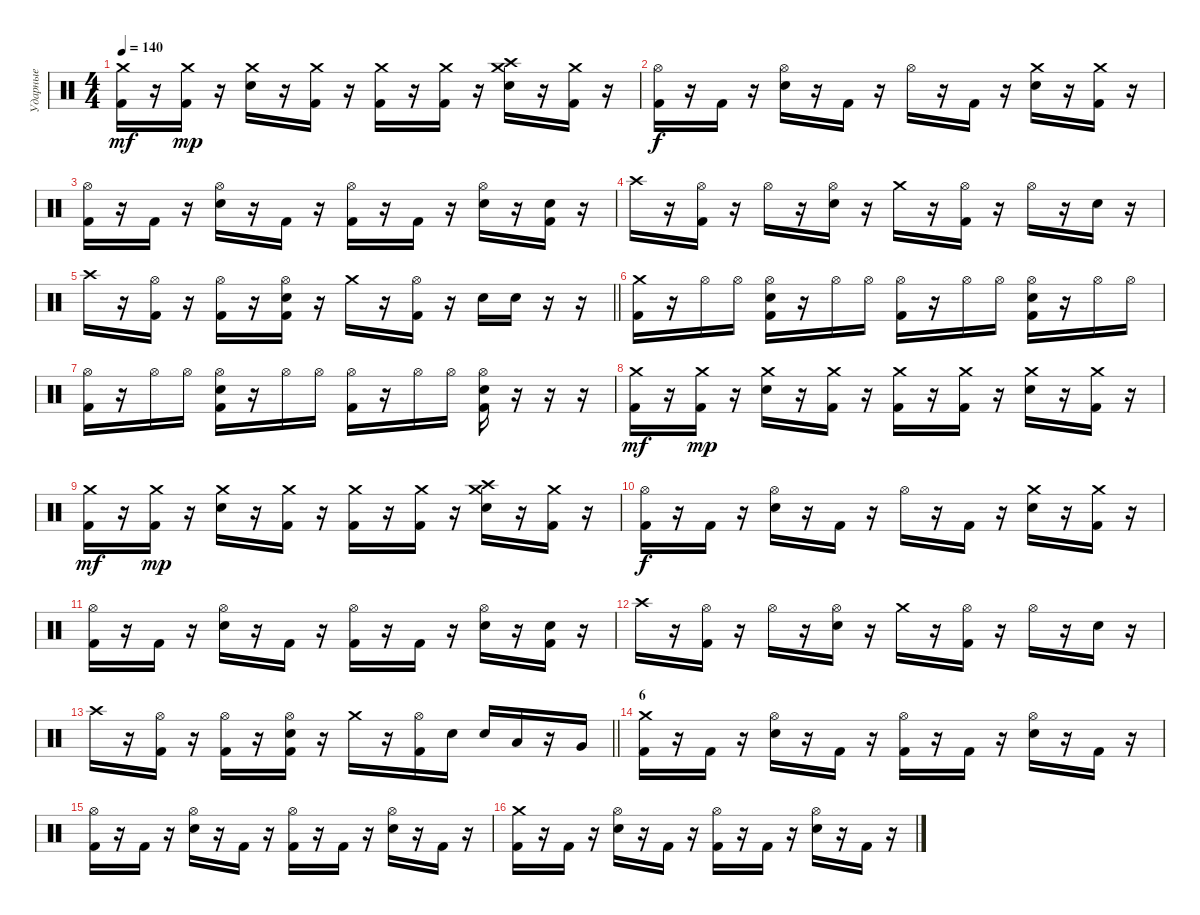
\track ("Ударные" "Ударные") {instrument percussion}
\staff {score}
\articulation defaults
\ts (4 4)
\tempo 140
\clef neutral
\ks c
("Crash medium (hit)" "Kick (hit) 2").16{dy mf} r.16 ("Crash medium (hit)" "Kick (hit) 2").16{dy mp} r.16 ("Crash medium (hit)" "Electric Snare (hit)").16 r.16 ("Crash medium (hit)" "Kick (hit) 2").16 r.16 ("Crash medium (hit)" "Kick (hit) 2").16 r.16 ("Crash medium (hit)" "Kick (hit) 2").16 r.16 ("Crash medium (hit)" "Crash high (hit)" "Electric Snare (hit)").16 r.16 ("Crash medium (hit)" "Kick (hit) 2").16 r.16 |
("Hi-Hat (open)" "Kick (hit) 2").16{dy f} r.16 "Kick (hit) 2".16 r.16 ("Hi-Hat (open)" "Electric Snare (hit)").16 r.16 "Kick (hit) 2".16 r.16 "Hi-Hat (open)".16 r.16 "Kick (hit) 2".16 r.16 ("Crash medium (hit)" "Electric Snare (hit)").16 r.16 ("Crash medium (hit)" "Kick (hit) 2").16 r.16 |
("Hi-Hat (open)" "Kick (hit) 2").16 r.16 "Kick (hit) 2".16 r.16 ("Hi-Hat (open)" "Electric Snare (hit)").16 r.16 "Kick (hit) 2".16 r.16 ("Hi-Hat (open)" "Kick (hit) 2").16 r.16 "Kick (hit) 2".16 r.16 ("Hi-Hat (open)" "Electric Snare (hit)").16 r.16 ("Electric Snare (hit)" "Kick (hit) 2").16 r.16 |
"Crash high (hit)".16 r.16 ("Hi-Hat (open)" "Kick (hit) 2").16 r.16 "Hi-Hat (open)".16 r.16 ("Hi-Hat (open)" "Electric Snare (hit)").16 r.16 "Crash medium (hit)".16 r.16 ("Hi-Hat (open)" "Kick (hit) 2").16 r.16 "Hi-Hat (open)".16 r.16 "Electric Snare (hit)".16 r.16 |
\barLineRight lightlight "Crash high (hit)".16
r.16 ("Hi-Hat (open)" "Kick (hit) 2").16 r.16 ("Hi-Hat (open)" "Kick (hit) 2").16 r.16 ("Hi-Hat (open)" "Electric Snare (hit)" "Kick (hit) 2").16 r.16 "Crash medium (hit)".16 r.16 ("Hi-Hat (open)" "Kick (hit) 2").16 r.16 "Electric Snare (hit)".16 "Electric Snare (hit)".16 r.16 r.16 |
("Crash medium (hit)" "Kick (hit) 2").16 r.16 "Hi-Hat (open)".16 "Hi-Hat (open)".16 ("Hi-Hat (open)" "Electric Snare (hit)" "Kick (hit) 2").16 r.16 "Hi-Hat (open)".16 "Hi-Hat (open)".16 ("Hi-Hat (open)" "Kick (hit) 2").16 r.16 "Hi-Hat (open)".16 "Hi-Hat (open)".16 ("Hi-Hat (open)" "Electric Snare (hit)" "Kick (hit) 2").16 r.16 "Hi-Hat (open)".16 "Hi-Hat (open)".16 |
("Hi-Hat (open)" "Kick (hit) 2").16 r.16 "Hi-Hat (open)".16 "Hi-Hat (open)".16 ("Hi-Hat (open)" "Electric Snare (hit)" "Kick (hit) 2").16 r.16 "Hi-Hat (open)".16 "Hi-Hat (open)".16 ("Hi-Hat (open)" "Kick (hit) 2").16 r.16 "Hi-Hat (open)".16 "Hi-Hat (open)".16 ("Hi-Hat (open)" "Electric Snare (hit)" "Kick (hit) 2").16 r.16 r.16 r.16 |
("Crash medium (hit)" "Kick (hit) 2").16{dy mf} r.16 ("Crash medium (hit)" "Kick (hit) 2").16{dy mp} r.16 ("Crash medium (hit)" "Electric Snare (hit)").16 r.16 ("Crash medium (hit)" "Kick (hit) 2").16 r.16 ("Crash medium (hit)" "Kick (hit) 2").16 r.16 ("Crash medium (hit)" "Kick (hit) 2").16 r.16 ("Crash medium (hit)" "Electric Snare (hit)").16 r.16 ("Crash medium (hit)" "Kick (hit) 2").16 r.16 |
("Crash medium (hit)" "Kick (hit) 2").16{dy mf} r.16 ("Crash medium (hit)" "Kick (hit) 2").16{dy mp} r.16 ("Crash medium (hit)" "Electric Snare (hit)").16 r.16 ("Crash medium (hit)" "Kick (hit) 2").16 r.16 ("Crash medium (hit)" "Kick (hit) 2").16 r.16 ("Crash medium (hit)" "Kick (hit) 2").16 r.16 ("Crash medium (hit)" "Crash high (hit)" "Electric Snare (hit)").16 r.16 ("Crash medium (hit)" "Kick (hit) 2").16 r.16 |
("Hi-Hat (open)" "Kick (hit) 2").16{dy f} r.16 "Kick (hit) 2".16 r.16 ("Hi-Hat (open)" "Electric Snare (hit)").16 r.16 "Kick (hit) 2".16 r.16 "Hi-Hat (open)".16 r.16 "Kick (hit) 2".16 r.16 ("Crash medium (hit)" "Electric Snare (hit)").16 r.16 ("Crash medium (hit)" "Kick (hit) 2").16 r.16 |
("Hi-Hat (open)" "Kick (hit) 2").16 r.16 "Kick (hit) 2".16 r.16 ("Hi-Hat (open)" "Electric Snare (hit)").16 r.16 "Kick (hit) 2".16 r.16 ("Hi-Hat (open)" "Kick (hit) 2").16 r.16 "Kick (hit) 2".16 r.16 ("Hi-Hat (open)" "Electric Snare (hit)").16 r.16 ("Electric Snare (hit)" "Kick (hit) 2").16 r.16 |
"Crash high (hit)".16 r.16 ("Hi-Hat (open)" "Kick (hit) 2").16 r.16 "Hi-Hat (open)".16 r.16 ("Hi-Hat (open)" "Electric Snare (hit)").16 r.16 "Crash medium (hit)".16 r.16 ("Hi-Hat (open)" "Kick (hit) 2").16 r.16 "Hi-Hat (open)".16 r.16 "Electric Snare (hit)".16 r.16 |
\barLineRight lightlight "Crash high (hit)".16
r.16 ("Hi-Hat (open)" "Kick (hit) 2").16 r.16 ("Hi-Hat (open)" "Kick (hit) 2").16 r.16 ("Hi-Hat (open)" "Electric Snare (hit)" "Kick (hit) 2").16 r.16 "Crash medium (hit)".16 r.16 ("Hi-Hat (open)" "Kick (hit) 2").16 "Electric Snare (hit)".16 "Electric Snare (hit)".16 "Low Tom (hit)".16 r.16 "Very Low Tom (hit)".16 |
\section ("" "6")
("Crash medium (hit)" "Kick (hit) 2").16 r.16 "Kick (hit) 2".16 r.16 ("Hi-Hat (open)" "Electric Snare (hit)").16 r.16 "Kick (hit) 2".16 r.16 ("Hi-Hat (open)" "Kick (hit) 2").16 r.16 "Kick (hit) 2".16 r.16 ("Hi-Hat (open)" "Electric Snare (hit)").16 r.16 "Kick (hit) 2".16 r.16 |
("Hi-Hat (open)" "Kick (hit) 2").16 r.16 "Kick (hit) 2".16 r.16 ("Hi-Hat (open)" "Electric Snare (hit)").16 r.16 "Kick (hit) 2".16 r.16 ("Hi-Hat (open)" "Kick (hit) 2").16 r.16 "Kick (hit) 2".16 r.16 ("Hi-Hat (open)" "Electric Snare (hit)").16 r.16 "Kick (hit) 2".16 r.16 |
("Crash medium (hit)" "Kick (hit) 2").16 r.16 "Kick (hit) 2".16 r.16 ("Hi-Hat (open)" "Electric Snare (hit)").16 r.16 "Kick (hit) 2".16 r.16 ("Hi-Hat (open)" "Kick (hit) 2").16 r.16 "Kick (hit) 2".16 r.16 ("Hi-Hat (open)" "Electric Snare (hit)").16 r.16 "Kick (hit) 2".16 r.16
